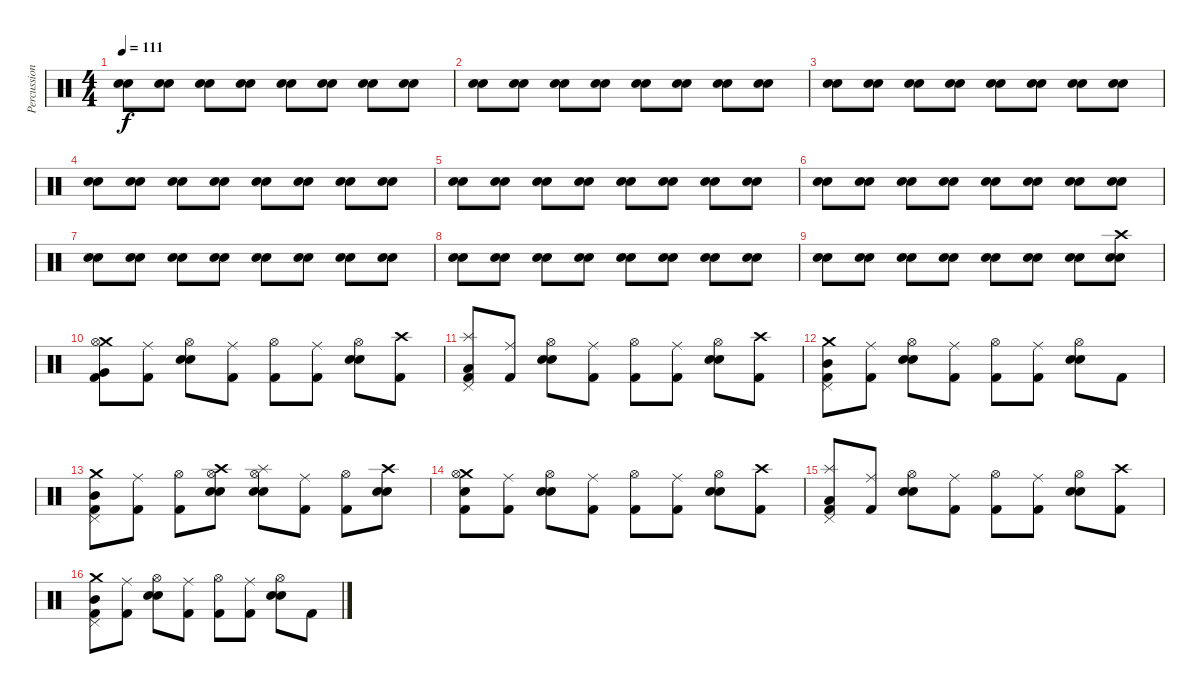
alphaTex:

\track ("Percussion" "Percussion") {instrument percussion}
\staff {score}
\articulation defaults
\ts (4 4)
\tempo 111
\clef neutral
\ks c
("Electric Snare (hit)" "Snare (hit) 2").8{dy f volume 12} ("Electric Snare (hit)" "Snare (hit) 2").8 ("Electric Snare (hit)" "Snare (hit) 2").8 ("Electric Snare (hit)" "Snare (hit) 2").8 ("Electric Snare (hit)" "Snare (hit) 2").8 ("Electric Snare (hit)" "Snare (hit) 2").8 ("Electric Snare (hit)" "Snare (hit) 2").8 ("Electric Snare (hit)" "Snare (hit) 2").8 |
("Electric Snare (hit)" "Snare (hit) 2").8{volume 10} ("Electric Snare (hit)" "Snare (hit) 2").8 ("Electric Snare (hit)" "Snare (hit) 2").8 ("Electric Snare (hit)" "Snare (hit) 2").8 ("Electric Snare (hit)" "Snare (hit) 2").8 ("Electric Snare (hit)" "Snare (hit) 2").8 ("Electric Snare (hit)" "Snare (hit) 2").8 ("Electric Snare (hit)" "Snare (hit) 2").8 |
("Electric Snare (hit)" "Snare (hit) 2").8 ("Electric Snare (hit)" "Snare (hit) 2").8 ("Electric Snare (hit)" "Snare (hit) 2").8 ("Electric Snare (hit)" "Snare (hit) 2").8 ("Electric Snare (hit)" "Snare (hit) 2").8 ("Electric Snare (hit)" "Snare (hit) 2").8 ("Electric Snare (hit)" "Snare (hit) 2").8 ("Electric Snare (hit)" "Snare (hit) 2").8 |
("Electric Snare (hit)" "Snare (hit) 2").8 ("Electric Snare (hit)" "Snare (hit) 2").8 ("Electric Snare (hit)" "Snare (hit) 2").8 ("Electric Snare (hit)" "Snare (hit) 2").8 ("Electric Snare (hit)" "Snare (hit) 2").8 ("Electric Snare (hit)" "Snare (hit) 2").8 ("Electric Snare (hit)" "Snare (hit) 2").8 ("Electric Snare (hit)" "Snare (hit) 2").8 |
("Electric Snare (hit)" "Snare (hit) 2").8 ("Electric Snare (hit)" "Snare (hit) 2").8 ("Electric Snare (hit)" "Snare (hit) 2").8 ("Electric Snare (hit)" "Snare (hit) 2").8 ("Electric Snare (hit)" "Snare (hit) 2").8 ("Electric Snare (hit)" "Snare (hit) 2").8 ("Electric Snare (hit)" "Snare (hit) 2").8 ("Electric Snare (hit)" "Snare (hit) 2").8 |
("Electric Snare (hit)" "Snare (hit) 2").8 ("Electric Snare (hit)" "Snare (hit) 2").8 ("Electric Snare (hit)" "Snare (hit) 2").8 ("Electric Snare (hit)" "Snare (hit) 2").8 ("Electric Snare (hit)" "Snare (hit) 2").8 ("Electric Snare (hit)" "Snare (hit) 2").8 ("Electric Snare (hit)" "Snare (hit) 2").8 ("Electric Snare (hit)" "Snare (hit) 2").8 |
("Electric Snare (hit)" "Snare (hit) 2").8 ("Electric Snare (hit)" "Snare (hit) 2").8 ("Electric Snare (hit)" "Snare (hit) 2").8 ("Electric Snare (hit)" "Snare (hit) 2").8 ("Electric Snare (hit)" "Snare (hit) 2").8 ("Electric Snare (hit)" "Snare (hit) 2").8 ("Electric Snare (hit)" "Snare (hit) 2").8 ("Electric Snare (hit)" "Snare (hit) 2").8 |
("Electric Snare (hit)" "Snare (hit) 2").8 ("Electric Snare (hit)" "Snare (hit) 2").8 ("Electric Snare (hit)" "Snare (hit) 2").8 ("Electric Snare (hit)" "Snare (hit) 2").8 ("Electric Snare (hit)" "Snare (hit) 2").8{volume 11} ("Electric Snare (hit)" "Snare (hit) 2").8 ("Electric Snare (hit)" "Snare (hit) 2").8 ("Electric Snare (hit)" "Snare (hit) 2").8 |
("Electric Snare (hit)" "Snare (hit) 2").8{volume 12} ("Electric Snare (hit)" "Snare (hit) 2").8 ("Electric Snare (hit)" "Snare (hit) 2").8 ("Electric Snare (hit)" "Snare (hit) 2").8 ("Electric Snare (hit)" "Snare (hit) 2").8 ("Electric Snare (hit)" "Snare (hit) 2").8 ("Electric Snare (hit)" "Snare (hit) 2").8 ("Electric Snare (hit)" "Snare (hit) 2" "Crash high (hit)").8 |
("Kick (hit) 2" "Very Low Tom (hit)" "Crash medium (hit)" "Hi-Hat (open)").8{volume 16} ("Kick (hit) 2" "Ride (middle)").8 ("Snare (hit) 2" "Electric Snare (hit)" "Hi-Hat (open)").8 ("Kick (hit) 2" "Ride (middle)").8 ("Kick (hit) 2" "Hi-Hat (open)").8 ("Kick (hit) 2" "Ride (middle)").8 ("Snare (hit) 2" "Electric Snare (hit)" "Hi-Hat (open)").8 ("Kick (hit) 2" "Crash high (hit)").8 |
("Kick (hit) 2" "Low Tom (hit)" "Splash (hit)" "Pedal Hi-Hat (hit)").8 ("Kick (hit) 2" "Ride (middle)").8 ("Snare (hit) 2" "Electric Snare (hit)" "Hi-Hat (open)").8 ("Kick (hit) 2" "Ride (middle)").8 ("Kick (hit) 2" "Hi-Hat (open)").8 ("Kick (hit) 2" "Ride (middle)").8 ("Snare (hit) 2" "Electric Snare (hit)" "Hi-Hat (open)").8 ("Kick (hit) 2" "Crash high (hit)").8 |
("Kick (hit) 2" "Mid Tom (hit)" "Crash medium (hit)" "Pedal Hi-Hat (hit)").8 ("Kick (hit) 2" "Ride (middle)").8 ("Snare (hit) 2" "Electric Snare (hit)" "Hi-Hat (open)").8 ("Kick (hit) 2" "Ride (middle)").8 ("Kick (hit) 2" "Hi-Hat (open)").8 ("Kick (hit) 2" "Ride (middle)").8 ("Snare (hit) 2" "Electric Snare (hit)" "Hi-Hat (open)").8 "Kick (hit) 2".8 |
("Kick (hit) 2" "Mid Tom (hit)" "Crash medium (hit)" "Pedal Hi-Hat (hit)").8 ("Kick (hit) 2" "Ride (middle)").8 ("Kick (hit) 2" "Hi-Hat (open)").8 ("Snare (hit) 2" "Electric Snare (hit)" "Crash high (hit)" "Hi-Hat (open)").8 ("Snare (hit) 2" "Electric Snare (hit)" "Splash (hit)" "Hi-Hat (open)").8 ("Kick (hit) 2" "Ride (middle)").8 ("Kick (hit) 2" "Hi-Hat (open)").8 ("Snare (hit) 2" "Electric Snare (hit)" "Crash high (hit)").8 |
("Kick (hit) 2" "Electric Snare (hit)" "Crash medium (hit)" "Hi-Hat (open)").8 ("Kick (hit) 2" "Ride (middle)").8 ("Snare (hit) 2" "Electric Snare (hit)" "Hi-Hat (open)").8 ("Kick (hit) 2" "Ride (middle)").8 ("Kick (hit) 2" "Hi-Hat (open)").8 ("Kick (hit) 2" "Ride (middle)").8 ("Snare (hit) 2" "Electric Snare (hit)" "Hi-Hat (open)").8 ("Kick (hit) 2" "Crash high (hit)").8 |
("Kick (hit) 2" "Low Tom (hit)" "Splash (hit)" "Pedal Hi-Hat (hit)").8 ("Kick (hit) 2" "Ride (middle)").8 ("Snare (hit) 2" "Electric Snare (hit)" "Hi-Hat (open)").8 ("Kick (hit) 2" "Ride (middle)").8 ("Kick (hit) 2" "Hi-Hat (open)").8 ("Kick (hit) 2" "Ride (middle)").8 ("Snare (hit) 2" "Electric Snare (hit)" "Hi-Hat (open)").8 ("Kick (hit) 2" "Crash high (hit)").8 |
("Kick (hit) 2" "Mid Tom (hit)" "Crash medium (hit)" "Pedal Hi-Hat (hit)").8 ("Kick (hit) 2" "Ride (middle)").8 ("Snare (hit) 2" "Electric Snare (hit)" "Hi-Hat (open)").8 ("Kick (hit) 2" "Ride (middle)").8 ("Kick (hit) 2" "Hi-Hat (open)").8 ("Kick (hit) 2" "Ride (middle)").8 ("Snare (hit) 2" "Electric Snare (hit)" "Hi-Hat (open)").8 "Kick (hit) 2".8
